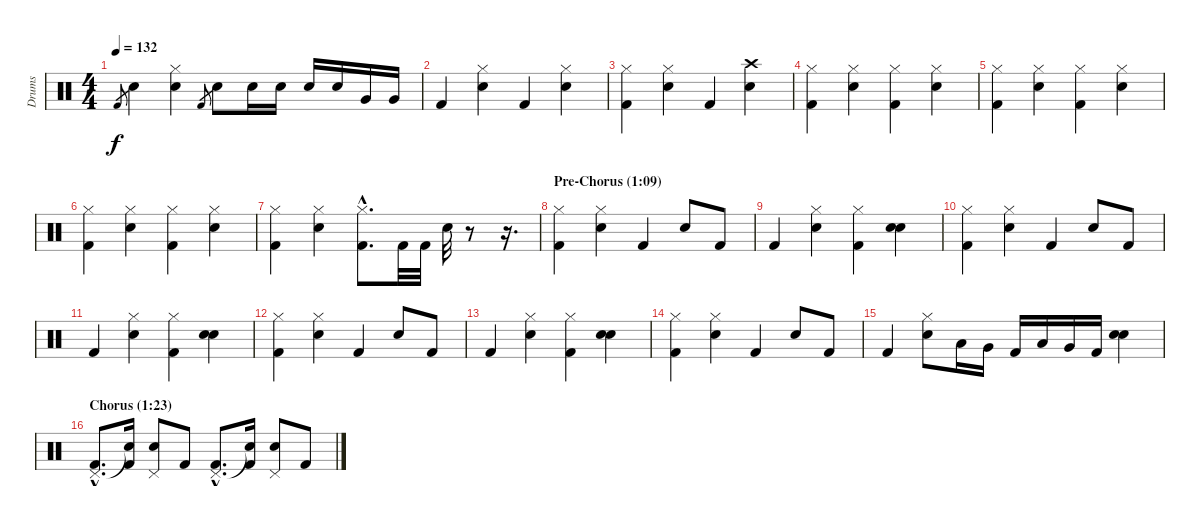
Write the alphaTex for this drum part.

\track ("Drums" "Drums") {instrument percussion}
\staff {score}
\articulation defaults
\ts (4 4)
\tempo 132
\clef neutral
\ks aminor "Kick (hit) 2".8{gr dy f} "Electric Snare (hit)".4
("Electric Snare (hit)" "Hi-Hat (closed)").4 "Kick (hit) 2".8{gr} "Electric Snare (hit)".8 "Electric Snare (hit)".16 "Electric Snare (hit)".16 "Electric Snare (hit)".16 "Electric Snare (hit)".16 "Very Low Tom (hit)".16 "Very Low Tom (hit)".16 |
"Kick (hit) 2".4 ("Electric Snare (hit)" "Hi-Hat (closed)").4 "Kick (hit) 2".4 ("Electric Snare (hit)" "Hi-Hat (closed)").4 |
("Kick (hit) 2" "Hi-Hat (closed)").4 ("Electric Snare (hit)" "Hi-Hat (closed)").4 "Kick (hit) 2".4 ("Electric Snare (hit)" "Crash high (hit)").4 |
("Kick (hit) 2" "Hi-Hat (closed)").4 ("Electric Snare (hit)" "Hi-Hat (closed)").4 ("Kick (hit) 2" "Hi-Hat (closed)").4 ("Electric Snare (hit)" "Hi-Hat (closed)").4 |
("Kick (hit) 2" "Hi-Hat (closed)").4 ("Electric Snare (hit)" "Hi-Hat (closed)").4 ("Kick (hit) 2" "Hi-Hat (closed)").4 ("Electric Snare (hit)" "Hi-Hat (closed)").4 |
("Kick (hit) 2" "Hi-Hat (closed)").4 ("Electric Snare (hit)" "Hi-Hat (closed)").4 ("Kick (hit) 2" "Hi-Hat (closed)").4 ("Electric Snare (hit)" "Hi-Hat (closed)").4 |
("Kick (hit) 2" "Hi-Hat (closed)").4 ("Electric Snare (hit)" "Hi-Hat (closed)").4 ("Kick (hit) 2"{hac} "Hi-Hat (closed)"{hac}).8{d} "Kick (hit) 2".32 "Kick (hit) 2".32 "Electric Snare (hit)".32 r.8 r.16{d} |
\section ("" "Pre-Chorus (1:09)")
("Kick (hit) 2" "Hi-Hat (closed)").4 ("Electric Snare (hit)" "Hi-Hat (closed)").4 "Kick (hit) 2".4 "Electric Snare (hit)".8 "Kick (hit) 2".8 |
"Kick (hit) 2".4 ("Electric Snare (hit)" "Hi-Hat (closed)").4 ("Kick (hit) 2" "Hi-Hat (closed)").4 ("Electric Snare (hit)" "Electric Snare (hit)").4 |
("Kick (hit) 2" "Hi-Hat (closed)").4 ("Electric Snare (hit)" "Hi-Hat (closed)").4 "Kick (hit) 2".4 "Electric Snare (hit)".8 "Kick (hit) 2".8 |
"Kick (hit) 2".4 ("Electric Snare (hit)" "Hi-Hat (closed)").4 ("Kick (hit) 2" "Hi-Hat (closed)").4 ("Electric Snare (hit)" "Electric Snare (hit)").4 |
("Kick (hit) 2" "Hi-Hat (closed)").4 ("Electric Snare (hit)" "Hi-Hat (closed)").4 "Kick (hit) 2".4 "Electric Snare (hit)".8 "Kick (hit) 2".8 |
"Kick (hit) 2".4 ("Electric Snare (hit)" "Hi-Hat (closed)").4 ("Kick (hit) 2" "Hi-Hat (closed)").4 ("Electric Snare (hit)" "Electric Snare (hit)").4 |
("Kick (hit) 2" "Hi-Hat (closed)").4 ("Electric Snare (hit)" "Hi-Hat (closed)").4 "Kick (hit) 2".4 "Electric Snare (hit)".8 "Kick (hit) 2".8 |
"Kick (hit) 2".4 ("Electric Snare (hit)" "Hi-Hat (closed)").8 "Low Tom (hit)".16 "Very Low Tom (hit)".16 "Kick (hit) 2".16 "Low Tom (hit)".16 "Very Low Tom (hit)".16 "Kick (hit) 2".16 ("Electric Snare (hit)" "Electric Snare (hit)").4 |
\section ("" "Chorus (1:23)")
("Kick (hit) 2"{hac} "Pedal Hi-Hat (hit)"{hac}).8{d} ("Kick (hit) 2" "Snare (hit)"{t}).16 ("Electric Snare (hit)" "Pedal Hi-Hat (hit)").8 "Kick (hit) 2".8 ("Kick (hit) 2"{hac} "Pedal Hi-Hat (hit)"{hac}).8{d} ("Kick (hit) 2" "Snare (hit)"{t}).16 ("Electric Snare (hit)" "Pedal Hi-Hat (hit)").8 "Kick (hit) 2".8
